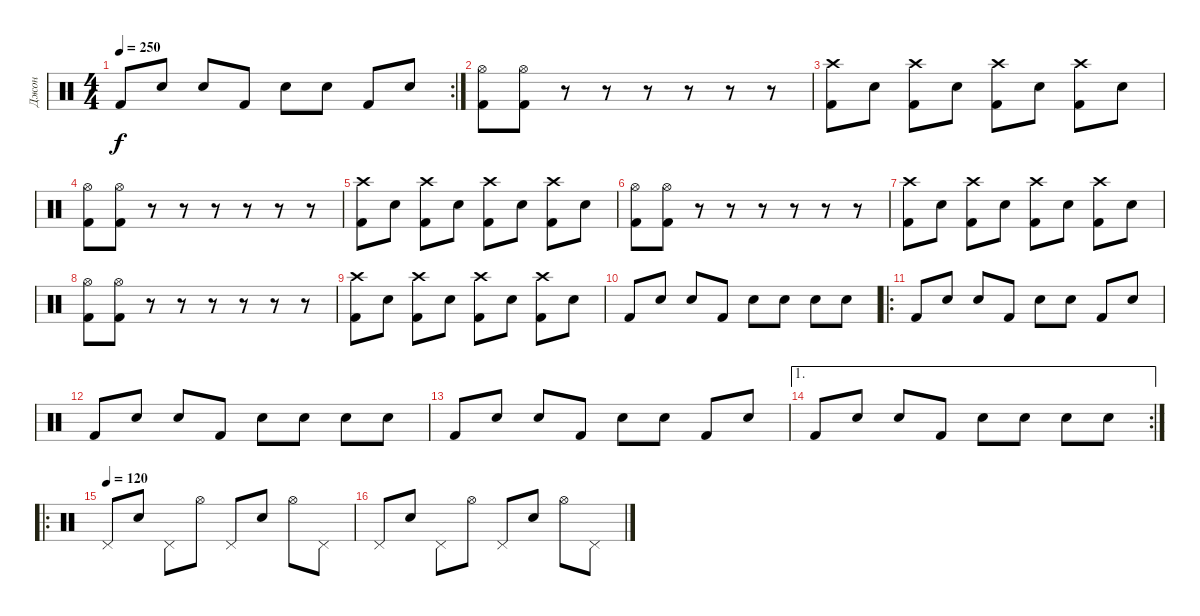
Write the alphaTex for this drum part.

\track ("Джон" "Джон") {instrument percussion}
\staff {score}
\articulation defaults
\rc 2
\ts (4 4)
\tempo 250
\clef neutral
\ks c "Kick (hit) 2".8{dy f} "Snare (hit)".8 "Snare (hit)".8 "Kick (hit) 2".8 "Electric Snare (hit)".8 "Snare (hit)".8 "Kick (hit) 2".8 "Snare (hit)".8
|
("Kick (hit) 2" "Hi-Hat (open)").8 ("Kick (hit) 2" "Hi-Hat (open)").8 r.8 r.8 r.8 r.8 r.8 r.8 |
("Crash high (hit)" "Kick (hit) 2").8 "Snare (hit)".8 ("Crash high (hit)" "Kick (hit) 2").8 "Snare (hit)".8 ("Crash high (hit)" "Kick (hit) 2").8 "Snare (hit)".8 ("Crash high (hit)" "Kick (hit) 2").8 "Snare (hit)".8 |
("Kick (hit) 2" "Hi-Hat (open)").8 ("Kick (hit) 2" "Hi-Hat (open)").8 r.8 r.8 r.8 r.8 r.8 r.8 |
("Crash high (hit)" "Kick (hit) 2").8 "Snare (hit)".8 ("Crash high (hit)" "Kick (hit) 2").8 "Snare (hit)".8 ("Crash high (hit)" "Kick (hit) 2").8 "Snare (hit)".8 ("Crash high (hit)" "Kick (hit) 2").8 "Snare (hit)".8 |
("Kick (hit) 2" "Hi-Hat (open)").8 ("Kick (hit) 2" "Hi-Hat (open)").8 r.8 r.8 r.8 r.8 r.8 r.8 |
("Crash high (hit)" "Kick (hit) 2").8 "Snare (hit)".8 ("Crash high (hit)" "Kick (hit) 2").8 "Snare (hit)".8 ("Crash high (hit)" "Kick (hit) 2").8 "Snare (hit)".8 ("Crash high (hit)" "Kick (hit) 2").8 "Snare (hit)".8 |
("Kick (hit) 2" "Hi-Hat (open)").8 ("Kick (hit) 2" "Hi-Hat (open)").8 r.8 r.8 r.8 r.8 r.8 r.8 |
("Crash high (hit)" "Kick (hit) 2").8 "Snare (hit)".8 ("Crash high (hit)" "Kick (hit) 2").8 "Snare (hit)".8 ("Crash high (hit)" "Kick (hit) 2").8 "Snare (hit)".8 ("Crash high (hit)" "Kick (hit) 2").8 "Snare (hit)".8 |
"Kick (hit) 2".8 "Snare (hit)".8 "Snare (hit)".8 "Kick (hit) 2".8 "Electric Snare (hit)".8 "Snare (hit)".8 "Snare (hit)".8 "Electric Snare (hit)".8 |
\ro "Kick (hit) 2".8 "Snare (hit)".8 "Snare (hit)".8 "Kick (hit) 2".8 "Electric Snare (hit)".8 "Snare (hit)".8 "Kick (hit) 2".8 "Snare (hit)".8
|
"Kick (hit) 2".8 "Snare (hit)".8 "Snare (hit)".8 "Kick (hit) 2".8 "Electric Snare (hit)".8 "Snare (hit)".8 "Snare (hit)".8 "Electric Snare (hit)".8 |
"Kick (hit) 2".8 "Snare (hit)".8 "Snare (hit)".8 "Kick (hit) 2".8 "Electric Snare (hit)".8 "Snare (hit)".8 "Kick (hit) 2".8 "Snare (hit)".8 |
\ae 1
\rc 2 "Kick (hit) 2".8 "Snare (hit)".8 "Snare (hit)".8 "Kick (hit) 2".8 "Electric Snare (hit)".8 "Snare (hit)".8 "Snare (hit)".8 "Electric Snare (hit)".8
|
\ro
\tempo (120)
"Pedal Hi-Hat (hit)".8 "Snare (hit)".8 "Pedal Hi-Hat (hit)".8 "Hi-Hat (open)".8 "Pedal Hi-Hat (hit)".8 "Snare (hit)".8 "Hi-Hat (open)".8 "Pedal Hi-Hat (hit)".8 |
"Pedal Hi-Hat (hit)".8 "Snare (hit)".8 "Pedal Hi-Hat (hit)".8 "Hi-Hat (open)".8 "Pedal Hi-Hat (hit)".8 "Snare (hit)".8 "Hi-Hat (open)".8 "Pedal Hi-Hat (hit)".8
